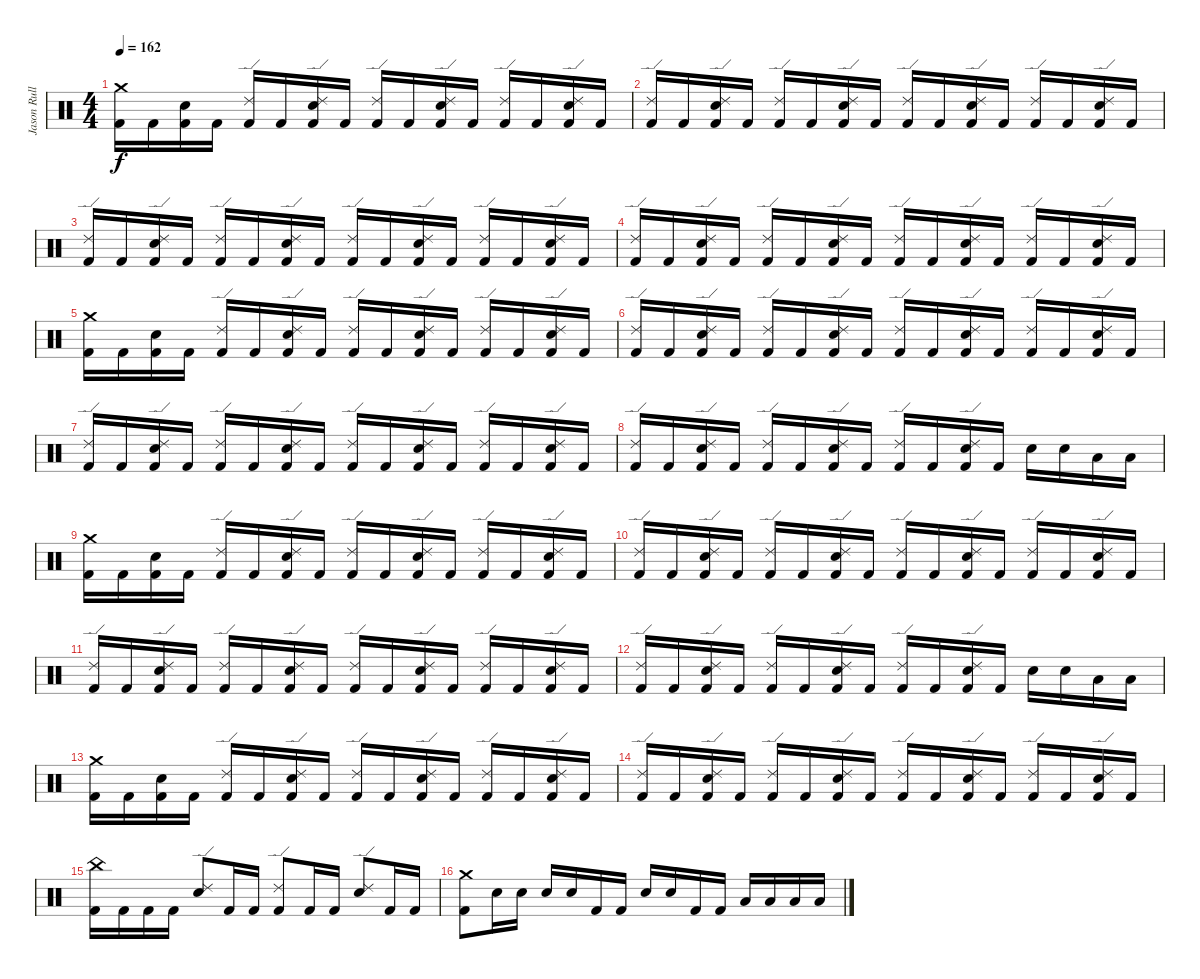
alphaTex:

\track ("Jason Rullo" "Jason Rull") {instrument percussion}
\staff {score}
\articulation defaults
\ts (4 4)
\tempo 162
\clef neutral
\ks aminor
("Crash medium (hit)" "Kick (hit) 2").16{dy f} "Kick (hit) 2".16 ("Electric Snare (hit)" "Kick (hit) 2").16 "Kick (hit) 2".16 ("Ride (edge) 2" "Kick (hit) 2").16 "Kick (hit) 2".16 ("Electric Snare (hit)" "Ride (edge) 2" "Kick (hit) 2").16 "Kick (hit) 2".16 ("Ride (edge) 2" "Kick (hit) 2").16 "Kick (hit) 2".16 ("Electric Snare (hit)" "Ride (edge) 2" "Kick (hit) 2").16 "Kick (hit) 2".16 ("Ride (edge) 2" "Kick (hit) 2").16 "Kick (hit) 2".16 ("Electric Snare (hit)" "Ride (edge) 2" "Kick (hit) 2").16 "Kick (hit) 2".16 |
("Ride (edge) 2" "Kick (hit) 2").16 "Kick (hit) 2".16 ("Electric Snare (hit)" "Ride (edge) 2" "Kick (hit) 2").16 "Kick (hit) 2".16 ("Ride (edge) 2" "Kick (hit) 2").16 "Kick (hit) 2".16 ("Electric Snare (hit)" "Ride (edge) 2" "Kick (hit) 2").16 "Kick (hit) 2".16 ("Ride (edge) 2" "Kick (hit) 2").16 "Kick (hit) 2".16 ("Electric Snare (hit)" "Ride (edge) 2" "Kick (hit) 2").16 "Kick (hit) 2".16 ("Ride (edge) 2" "Kick (hit) 2").16 "Kick (hit) 2".16 ("Electric Snare (hit)" "Ride (edge) 2" "Kick (hit) 2").16 "Kick (hit) 2".16 |
("Ride (edge) 2" "Kick (hit) 2").16 "Kick (hit) 2".16 ("Electric Snare (hit)" "Ride (edge) 2" "Kick (hit) 2").16 "Kick (hit) 2".16 ("Ride (edge) 2" "Kick (hit) 2").16 "Kick (hit) 2".16 ("Electric Snare (hit)" "Ride (edge) 2" "Kick (hit) 2").16 "Kick (hit) 2".16 ("Ride (edge) 2" "Kick (hit) 2").16 "Kick (hit) 2".16 ("Electric Snare (hit)" "Ride (edge) 2" "Kick (hit) 2").16 "Kick (hit) 2".16 ("Ride (edge) 2" "Kick (hit) 2").16 "Kick (hit) 2".16 ("Electric Snare (hit)" "Ride (edge) 2" "Kick (hit) 2").16 "Kick (hit) 2".16 |
("Ride (edge) 2" "Kick (hit) 2").16 "Kick (hit) 2".16 ("Electric Snare (hit)" "Ride (edge) 2" "Kick (hit) 2").16 "Kick (hit) 2".16 ("Ride (edge) 2" "Kick (hit) 2").16 "Kick (hit) 2".16 ("Electric Snare (hit)" "Ride (edge) 2" "Kick (hit) 2").16 "Kick (hit) 2".16 ("Ride (edge) 2" "Kick (hit) 2").16 "Kick (hit) 2".16 ("Electric Snare (hit)" "Ride (edge) 2" "Kick (hit) 2").16 "Kick (hit) 2".16 ("Ride (edge) 2" "Kick (hit) 2").16 "Kick (hit) 2".16 ("Electric Snare (hit)" "Ride (edge) 2" "Kick (hit) 2").16 "Kick (hit) 2".16 |
("Crash medium (hit)" "Kick (hit) 2").16 "Kick (hit) 2".16 ("Electric Snare (hit)" "Kick (hit) 2").16 "Kick (hit) 2".16 ("Ride (edge) 2" "Kick (hit) 2").16 "Kick (hit) 2".16 ("Electric Snare (hit)" "Ride (edge) 2" "Kick (hit) 2").16 "Kick (hit) 2".16 ("Ride (edge) 2" "Kick (hit) 2").16 "Kick (hit) 2".16 ("Electric Snare (hit)" "Ride (edge) 2" "Kick (hit) 2").16 "Kick (hit) 2".16 ("Ride (edge) 2" "Kick (hit) 2").16 "Kick (hit) 2".16 ("Electric Snare (hit)" "Ride (edge) 2" "Kick (hit) 2").16 "Kick (hit) 2".16 |
("Ride (edge) 2" "Kick (hit) 2").16 "Kick (hit) 2".16 ("Electric Snare (hit)" "Ride (edge) 2" "Kick (hit) 2").16 "Kick (hit) 2".16 ("Ride (edge) 2" "Kick (hit) 2").16 "Kick (hit) 2".16 ("Electric Snare (hit)" "Ride (edge) 2" "Kick (hit) 2").16 "Kick (hit) 2".16 ("Ride (edge) 2" "Kick (hit) 2").16 "Kick (hit) 2".16 ("Electric Snare (hit)" "Ride (edge) 2" "Kick (hit) 2").16 "Kick (hit) 2".16 ("Ride (edge) 2" "Kick (hit) 2").16 "Kick (hit) 2".16 ("Electric Snare (hit)" "Ride (edge) 2" "Kick (hit) 2").16 "Kick (hit) 2".16 |
("Ride (edge) 2" "Kick (hit) 2").16 "Kick (hit) 2".16 ("Electric Snare (hit)" "Ride (edge) 2" "Kick (hit) 2").16 "Kick (hit) 2".16 ("Ride (edge) 2" "Kick (hit) 2").16 "Kick (hit) 2".16 ("Electric Snare (hit)" "Ride (edge) 2" "Kick (hit) 2").16 "Kick (hit) 2".16 ("Ride (edge) 2" "Kick (hit) 2").16 "Kick (hit) 2".16 ("Electric Snare (hit)" "Ride (edge) 2" "Kick (hit) 2").16 "Kick (hit) 2".16 ("Ride (edge) 2" "Kick (hit) 2").16 "Kick (hit) 2".16 ("Electric Snare (hit)" "Ride (edge) 2" "Kick (hit) 2").16 "Kick (hit) 2".16 |
("Ride (edge) 2" "Kick (hit) 2").16 "Kick (hit) 2".16 ("Electric Snare (hit)" "Ride (edge) 2" "Kick (hit) 2").16 "Kick (hit) 2".16 ("Ride (edge) 2" "Kick (hit) 2").16 "Kick (hit) 2".16 ("Electric Snare (hit)" "Ride (edge) 2" "Kick (hit) 2").16 "Kick (hit) 2".16 ("Ride (edge) 2" "Kick (hit) 2").16 "Kick (hit) 2".16 ("Electric Snare (hit)" "Ride (edge) 2" "Kick (hit) 2").16 "Kick (hit) 2".16 "Electric Snare (hit)".16 "Electric Snare (hit)".16 "Low Tom (hit)".16 "Low Tom (hit)".16 |
("Crash medium (hit)" "Kick (hit) 2").16 "Kick (hit) 2".16 ("Electric Snare (hit)" "Kick (hit) 2").16 "Kick (hit) 2".16 ("Ride (edge) 2" "Kick (hit) 2").16 "Kick (hit) 2".16 ("Electric Snare (hit)" "Ride (edge) 2" "Kick (hit) 2").16 "Kick (hit) 2".16 ("Ride (edge) 2" "Kick (hit) 2").16 "Kick (hit) 2".16 ("Electric Snare (hit)" "Ride (edge) 2" "Kick (hit) 2").16 "Kick (hit) 2".16 ("Ride (edge) 2" "Kick (hit) 2").16 "Kick (hit) 2".16 ("Electric Snare (hit)" "Ride (edge) 2" "Kick (hit) 2").16 "Kick (hit) 2".16 |
("Ride (edge) 2" "Kick (hit) 2").16 "Kick (hit) 2".16 ("Electric Snare (hit)" "Ride (edge) 2" "Kick (hit) 2").16 "Kick (hit) 2".16 ("Ride (edge) 2" "Kick (hit) 2").16 "Kick (hit) 2".16 ("Electric Snare (hit)" "Ride (edge) 2" "Kick (hit) 2").16 "Kick (hit) 2".16 ("Ride (edge) 2" "Kick (hit) 2").16 "Kick (hit) 2".16 ("Electric Snare (hit)" "Ride (edge) 2" "Kick (hit) 2").16 "Kick (hit) 2".16 ("Ride (edge) 2" "Kick (hit) 2").16 "Kick (hit) 2".16 ("Electric Snare (hit)" "Ride (edge) 2" "Kick (hit) 2").16 "Kick (hit) 2".16 |
("Ride (edge) 2" "Kick (hit) 2").16 "Kick (hit) 2".16 ("Electric Snare (hit)" "Ride (edge) 2" "Kick (hit) 2").16 "Kick (hit) 2".16 ("Ride (edge) 2" "Kick (hit) 2").16 "Kick (hit) 2".16 ("Electric Snare (hit)" "Ride (edge) 2" "Kick (hit) 2").16 "Kick (hit) 2".16 ("Ride (edge) 2" "Kick (hit) 2").16 "Kick (hit) 2".16 ("Electric Snare (hit)" "Ride (edge) 2" "Kick (hit) 2").16 "Kick (hit) 2".16 ("Ride (edge) 2" "Kick (hit) 2").16 "Kick (hit) 2".16 ("Electric Snare (hit)" "Ride (edge) 2" "Kick (hit) 2").16 "Kick (hit) 2".16 |
("Ride (edge) 2" "Kick (hit) 2").16 "Kick (hit) 2".16 ("Electric Snare (hit)" "Ride (edge) 2" "Kick (hit) 2").16 "Kick (hit) 2".16 ("Ride (edge) 2" "Kick (hit) 2").16 "Kick (hit) 2".16 ("Electric Snare (hit)" "Ride (edge) 2" "Kick (hit) 2").16 "Kick (hit) 2".16 ("Ride (edge) 2" "Kick (hit) 2").16 "Kick (hit) 2".16 ("Electric Snare (hit)" "Ride (edge) 2" "Kick (hit) 2").16 "Kick (hit) 2".16 "Electric Snare (hit)".16 "Electric Snare (hit)".16 "Low Tom (hit)".16 "Low Tom (hit)".16 |
("Crash medium (hit)" "Kick (hit) 2").16 "Kick (hit) 2".16 ("Electric Snare (hit)" "Kick (hit) 2").16 "Kick (hit) 2".16 ("Ride (edge) 2" "Kick (hit) 2").16 "Kick (hit) 2".16 ("Electric Snare (hit)" "Ride (edge) 2" "Kick (hit) 2").16 "Kick (hit) 2".16 ("Ride (edge) 2" "Kick (hit) 2").16 "Kick (hit) 2".16 ("Electric Snare (hit)" "Ride (edge) 2" "Kick (hit) 2").16 "Kick (hit) 2".16 ("Ride (edge) 2" "Kick (hit) 2").16 "Kick (hit) 2".16 ("Electric Snare (hit)" "Ride (edge) 2" "Kick (hit) 2").16 "Kick (hit) 2".16 |
("Ride (edge) 2" "Kick (hit) 2").16 "Kick (hit) 2".16 ("Electric Snare (hit)" "Ride (edge) 2" "Kick (hit) 2").16 "Kick (hit) 2".16 ("Ride (edge) 2" "Kick (hit) 2").16 "Kick (hit) 2".16 ("Electric Snare (hit)" "Ride (edge) 2" "Kick (hit) 2").16 "Kick (hit) 2".16 ("Ride (edge) 2" "Kick (hit) 2").16 "Kick (hit) 2".16 ("Electric Snare (hit)" "Ride (edge) 2" "Kick (hit) 2").16 "Kick (hit) 2".16 ("Ride (edge) 2" "Kick (hit) 2").16 "Kick (hit) 2".16 ("Electric Snare (hit)" "Ride (edge) 2" "Kick (hit) 2").16 "Kick (hit) 2".16 |
("China (hit)" "Kick (hit) 2").16 "Kick (hit) 2".16 "Kick (hit) 2".16 "Kick (hit) 2".16 ("Ride (edge) 2" "Electric Snare (hit)").8 "Kick (hit) 2".16 "Kick (hit) 2".16 ("Ride (edge) 2" "Kick (hit) 2").8 "Kick (hit) 2".16 "Kick (hit) 2".16 ("Ride (edge) 2" "Electric Snare (hit)").8 "Kick (hit) 2".16 "Kick (hit) 2".16 |
("Crash medium (hit)" "Kick (hit) 2").8 "Electric Snare (hit)".16 "Electric Snare (hit)".16 "Electric Snare (hit)".16 "Electric Snare (hit)".16 "Kick (hit) 2".16 "Kick (hit) 2".16 "Electric Snare (hit)".16 "Electric Snare (hit)".16 "Kick (hit) 2".16 "Kick (hit) 2".16 "Low Tom (hit)".16 "Low Tom (hit)".16 "Low Floor Tom (hit)".16 "Low Floor Tom (hit)".16
